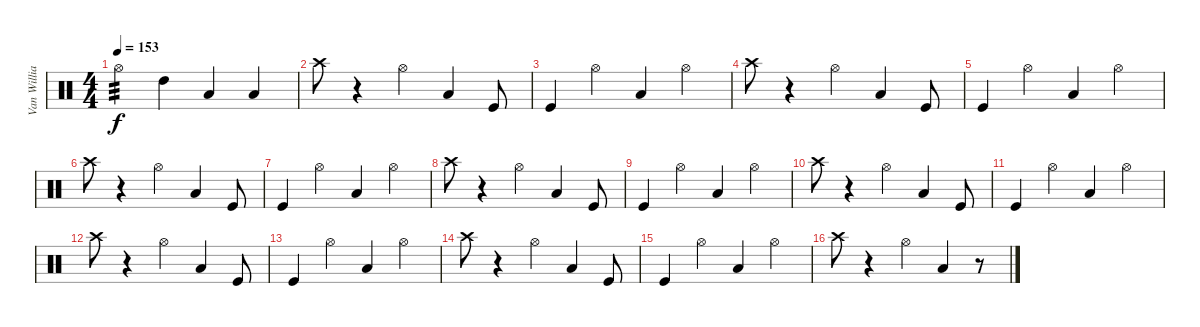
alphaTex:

\track ("Van Williams" "Van Willia") {instrument percussion}
\staff {score}
\articulation defaults
\ts (4 4)
\tempo 153
\clef neutral
\ks c "Hi-Hat (open)".4{tp 3 dy f} "High Tom (hit)".4 "Low Tom (hit)".4 "Low Floor Tom (hit)".4
|
"Crash high (hit)".8 r.4 "Hi-Hat (open)".4 "Low Tom (hit)".4 "Kick (hit)".8 |
"Kick (hit)".4 "Hi-Hat (open)".4 "Low Tom (hit)".4 "Hi-Hat (open)".4 |
"Crash high (hit)".8 r.4 "Hi-Hat (open)".4 "Low Tom (hit)".4 "Kick (hit)".8 |
"Kick (hit)".4 "Hi-Hat (open)".4 "Low Tom (hit)".4 "Hi-Hat (open)".4 |
"Crash high (hit)".8 r.4 "Hi-Hat (open)".4 "Low Tom (hit)".4 "Kick (hit)".8 |
"Kick (hit)".4 "Hi-Hat (open)".4 "Low Tom (hit)".4 "Hi-Hat (open)".4 |
"Crash high (hit)".8 r.4 "Hi-Hat (open)".4 "Low Tom (hit)".4 "Kick (hit)".8 |
"Kick (hit)".4 "Hi-Hat (open)".4 "Low Tom (hit)".4 "Hi-Hat (open)".4 |
"Crash high (hit)".8 r.4 "Hi-Hat (open)".4 "Low Tom (hit)".4 "Kick (hit)".8 |
"Kick (hit)".4 "Hi-Hat (open)".4 "Low Tom (hit)".4 "Hi-Hat (open)".4 |
"Crash high (hit)".8 r.4 "Hi-Hat (open)".4 "Low Tom (hit)".4 "Kick (hit)".8 |
"Kick (hit)".4 "Hi-Hat (open)".4 "Low Tom (hit)".4 "Hi-Hat (open)".4 |
"Crash high (hit)".8 r.4 "Hi-Hat (open)".4 "Low Tom (hit)".4 "Kick (hit)".8 |
"Kick (hit)".4 "Hi-Hat (open)".4 "Low Tom (hit)".4 "Hi-Hat (open)".4 |
"Crash high (hit)".8 r.4 "Hi-Hat (open)".4 "Low Tom (hit)".4 r.8
